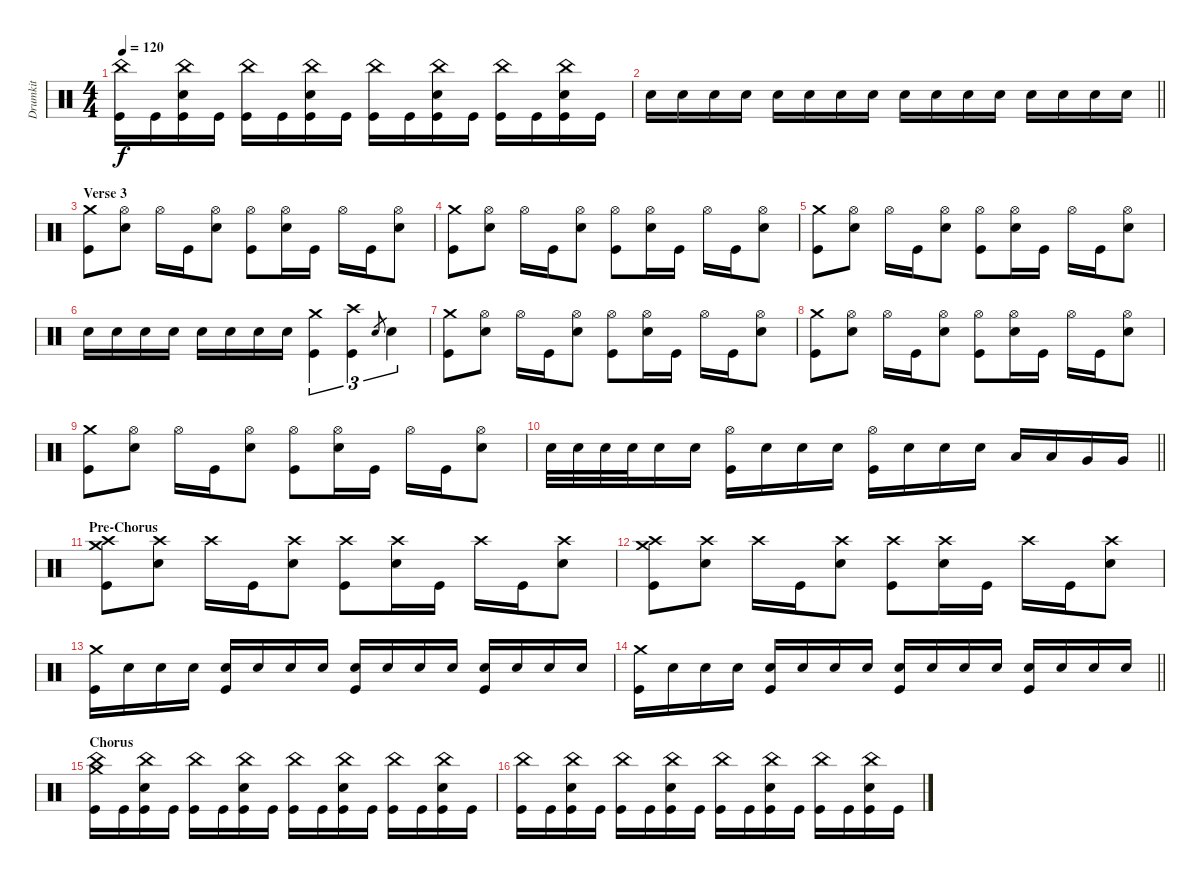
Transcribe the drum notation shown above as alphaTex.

\track ("Drumkit" "Drumkit") {instrument percussion}
\staff {score}
\articulation defaults
\ts (4 4)
\tempo 120
\clef neutral
\ks c
("China (hit)" "Kick (hit)").16{dy f} "Kick (hit)".16 ("Kick (hit)" "Snare (hit) 2" "China (hit)").16 "Kick (hit)".16 ("Kick (hit)" "China (hit)").16 "Kick (hit)".16 ("Kick (hit)" "Snare (hit) 2" "China (hit)").16 "Kick (hit)".16 ("Kick (hit)" "China (hit)").16 "Kick (hit)".16 ("Kick (hit)" "Snare (hit) 2" "China (hit)").16 "Kick (hit)".16 ("Kick (hit)" "China (hit)").16 "Kick (hit)".16 ("Kick (hit)" "Snare (hit) 2" "China (hit)").16 "Kick (hit)".16 |
\barLineRight lightlight "Snare (hit) 2".16 "Snare (hit) 2".16 "Snare (hit) 2".16 "Snare (hit) 2".16 "Snare (hit) 2".16 "Snare (hit) 2".16 "Snare (hit) 2".16 "Snare (hit) 2".16 "Snare (hit) 2".16 "Snare (hit) 2".16 "Snare (hit) 2".16 "Snare (hit) 2".16 "Snare (hit) 2".16 "Snare (hit) 2".16 "Snare (hit) 2".16 "Snare (hit) 2".16
|
\section ("" "Verse 3")
("Crash medium (hit)" "Kick (hit)").8 ("Snare (hit) 2" "Hi-Hat (open)").8 "Hi-Hat (open)".16 "Kick (hit)".16 ("Snare (hit) 2" "Hi-Hat (open)").8 ("Kick (hit)" "Hi-Hat (open)").8 ("Snare (hit) 2" "Hi-Hat (open)").16 "Kick (hit)".16 "Hi-Hat (open)".16 "Kick (hit)".16 ("Snare (hit) 2" "Hi-Hat (open)").8 |
("Crash medium (hit)" "Kick (hit)").8 ("Snare (hit) 2" "Hi-Hat (open)").8 "Hi-Hat (open)".16 "Kick (hit)".16 ("Snare (hit) 2" "Hi-Hat (open)").8 ("Kick (hit)" "Hi-Hat (open)").8 ("Snare (hit) 2" "Hi-Hat (open)").16 "Kick (hit)".16 "Hi-Hat (open)".16 "Kick (hit)".16 ("Snare (hit) 2" "Hi-Hat (open)").8 |
("Crash medium (hit)" "Kick (hit)").8 ("Snare (hit) 2" "Hi-Hat (open)").8 "Hi-Hat (open)".16 "Kick (hit)".16 ("Snare (hit) 2" "Hi-Hat (open)").8 ("Kick (hit)" "Hi-Hat (open)").8 ("Snare (hit) 2" "Hi-Hat (open)").16 "Kick (hit)".16 "Hi-Hat (open)".16 "Kick (hit)".16 ("Snare (hit) 2" "Hi-Hat (open)").8 |
"Snare (hit) 2".16 "Snare (hit) 2".16 "Snare (hit) 2".16 "Snare (hit) 2".16 "Snare (hit) 2".16 "Snare (hit) 2".16 "Snare (hit) 2".16 "Snare (hit) 2".16 ("Crash medium (hit)" "Kick (hit)").4{tu (3 2)} ("Kick (hit)" "Crash high (hit)").4{tu (3 2)} "Snare (hit)".8{gr} "Snare (hit) 2".4{tu (3 2)} |
("Crash medium (hit)" "Kick (hit)").8 ("Snare (hit) 2" "Hi-Hat (open)").8 "Hi-Hat (open)".16 "Kick (hit)".16 ("Snare (hit) 2" "Hi-Hat (open)").8 ("Kick (hit)" "Hi-Hat (open)").8 ("Snare (hit) 2" "Hi-Hat (open)").16 "Kick (hit)".16 "Hi-Hat (open)".16 "Kick (hit)".16 ("Snare (hit) 2" "Hi-Hat (open)").8 |
("Crash medium (hit)" "Kick (hit)").8 ("Snare (hit) 2" "Hi-Hat (open)").8 "Hi-Hat (open)".16 "Kick (hit)".16 ("Snare (hit) 2" "Hi-Hat (open)").8 ("Kick (hit)" "Hi-Hat (open)").8 ("Snare (hit) 2" "Hi-Hat (open)").16 "Kick (hit)".16 "Hi-Hat (open)".16 "Kick (hit)".16 ("Snare (hit) 2" "Hi-Hat (open)").8 |
("Crash medium (hit)" "Kick (hit)").8 ("Snare (hit) 2" "Hi-Hat (open)").8 "Hi-Hat (open)".16 "Kick (hit)".16 ("Snare (hit) 2" "Hi-Hat (open)").8 ("Kick (hit)" "Hi-Hat (open)").8 ("Snare (hit) 2" "Hi-Hat (open)").16 "Kick (hit)".16 "Hi-Hat (open)".16 "Kick (hit)".16 ("Snare (hit) 2" "Hi-Hat (open)").8 |
\barLineRight lightlight "Snare (hit) 2".32 "Snare (hit) 2".32 "Snare (hit) 2".32 "Snare (hit) 2".32 "Snare (hit) 2".16 "Snare (hit) 2".16
("Kick (hit)" "Hi-Hat (open)").16 "Snare (hit) 2".16 "Snare (hit) 2".16 "Snare (hit) 2".16 ("Kick (hit)" "Hi-Hat (open)").16 "Snare (hit) 2".16 "Snare (hit) 2".16 "Snare (hit) 2".16 "Low Tom (hit)".16 "Low Tom (hit)".16 "Very Low Tom (hit)".16 "Very Low Tom (hit)".16 |
\section ("" "Pre-Chorus")
("Crash medium (hit)" "Kick (hit)" "Crash high (hit)").8 ("Snare (hit) 2" "Crash high (hit)").8 "Crash high (hit)".16 "Kick (hit)".16 ("Snare (hit) 2" "Crash high (hit)").8 ("Kick (hit)" "Crash high (hit)").8 ("Snare (hit) 2" "Crash high (hit)").16 "Kick (hit)".16 "Crash high (hit)".16 "Kick (hit)".16 ("Snare (hit) 2" "Crash high (hit)").8 |
("Crash medium (hit)" "Kick (hit)" "Crash high (hit)").8 ("Snare (hit) 2" "Crash high (hit)").8 "Crash high (hit)".16 "Kick (hit)".16 ("Snare (hit) 2" "Crash high (hit)").8 ("Kick (hit)" "Crash high (hit)").8 ("Snare (hit) 2" "Crash high (hit)").16 "Kick (hit)".16 "Crash high (hit)".16 "Kick (hit)".16 ("Snare (hit) 2" "Crash high (hit)").8 |
("Kick (hit)" "Crash medium (hit)").16 "Snare (hit) 2".16 "Snare (hit) 2".16 "Snare (hit) 2".16 ("Kick (hit)" "Snare (hit) 2").16 "Snare (hit) 2".16 "Snare (hit) 2".16 "Snare (hit) 2".16 ("Kick (hit)" "Snare (hit) 2").16 "Snare (hit) 2".16 "Snare (hit) 2".16 "Snare (hit) 2".16 ("Kick (hit)" "Snare (hit) 2").16 "Snare (hit) 2".16 "Snare (hit) 2".16 "Snare (hit) 2".16 |
\barLineRight lightlight
("Kick (hit)" "Crash medium (hit)").16 "Snare (hit) 2".16 "Snare (hit) 2".16 "Snare (hit) 2".16 ("Kick (hit)" "Snare (hit) 2").16 "Snare (hit) 2".16 "Snare (hit) 2".16 "Snare (hit) 2".16 ("Kick (hit)" "Snare (hit) 2").16 "Snare (hit) 2".16 "Snare (hit) 2".16 "Snare (hit) 2".16 ("Kick (hit)" "Snare (hit) 2").16 "Snare (hit) 2".16 "Snare (hit) 2".16 "Snare (hit) 2".16 |
\section ("" "Chorus")
("China (hit)" "Kick (hit)" "Crash medium (hit)").16 "Kick (hit)".16 ("Kick (hit)" "Snare (hit) 2" "China (hit)").16 "Kick (hit)".16 ("Kick (hit)" "China (hit)").16 "Kick (hit)".16 ("Kick (hit)" "Snare (hit) 2" "China (hit)").16 "Kick (hit)".16 ("Kick (hit)" "China (hit)").16 "Kick (hit)".16 ("Kick (hit)" "Snare (hit) 2" "China (hit)").16 "Kick (hit)".16 ("Kick (hit)" "China (hit)").16 "Kick (hit)".16 ("Kick (hit)" "Snare (hit) 2" "China (hit)").16 "Kick (hit)".16 |
("China (hit)" "Kick (hit)").16 "Kick (hit)".16 ("Kick (hit)" "Snare (hit) 2" "China (hit)").16 "Kick (hit)".16 ("Kick (hit)" "China (hit)").16 "Kick (hit)".16 ("Kick (hit)" "Snare (hit) 2" "China (hit)").16 "Kick (hit)".16 ("Kick (hit)" "China (hit)").16 "Kick (hit)".16 ("Kick (hit)" "Snare (hit) 2" "China (hit)").16 "Kick (hit)".16 ("Kick (hit)" "China (hit)").16 "Kick (hit)".16 ("Kick (hit)" "Snare (hit) 2" "China (hit)").16 "Kick (hit)".16
